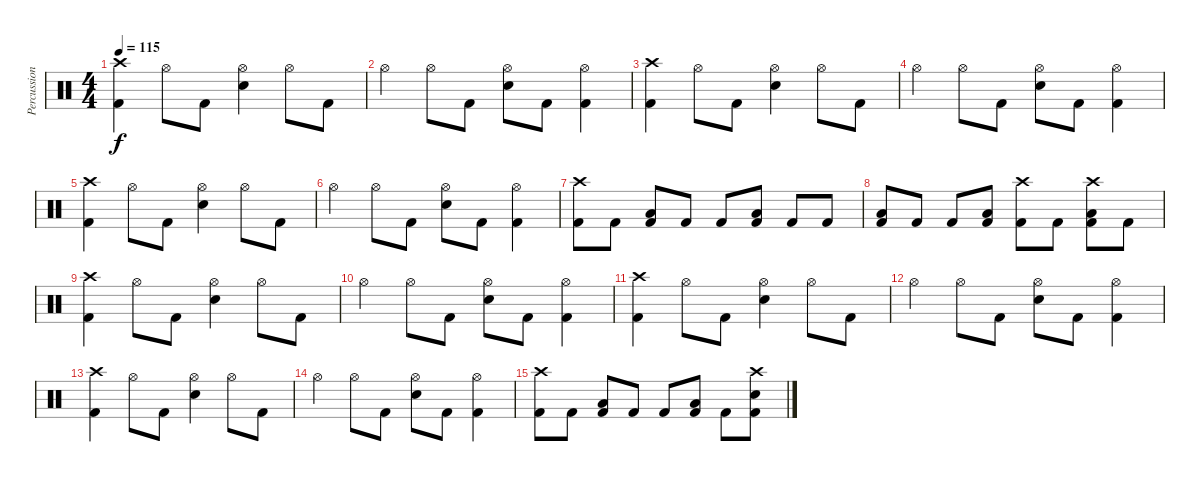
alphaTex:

\track ("Percussion" "Percussion") {instrument percussion}
\staff {score}
\articulation defaults
\ts (4 4)
\tempo 115
\clef neutral
\ks c
("Crash high (hit)" "Kick (hit) 2").4{dy f} "Hi-Hat (open)".8 "Kick (hit) 2".8 ("Hi-Hat (open)" "Electric Snare (hit)").4 "Hi-Hat (open)".8 "Kick (hit) 2".8 |
"Hi-Hat (open)".4 "Hi-Hat (open)".8 "Kick (hit) 2".8 ("Hi-Hat (open)" "Electric Snare (hit)").8 "Kick (hit) 2".8 ("Hi-Hat (open)" "Kick (hit) 2").4 |
("Crash high (hit)" "Kick (hit) 2").4 "Hi-Hat (open)".8 "Kick (hit) 2".8 ("Hi-Hat (open)" "Electric Snare (hit)").4 "Hi-Hat (open)".8 "Kick (hit) 2".8 |
"Hi-Hat (open)".4 "Hi-Hat (open)".8 "Kick (hit) 2".8 ("Hi-Hat (open)" "Electric Snare (hit)").8 "Kick (hit) 2".8 ("Hi-Hat (open)" "Kick (hit) 2").4 |
("Crash high (hit)" "Kick (hit) 2").4 "Hi-Hat (open)".8 "Kick (hit) 2".8 ("Hi-Hat (open)" "Electric Snare (hit)").4 "Hi-Hat (open)".8 "Kick (hit) 2".8 |
"Hi-Hat (open)".4 "Hi-Hat (open)".8 "Kick (hit) 2".8 ("Hi-Hat (open)" "Electric Snare (hit)").8 "Kick (hit) 2".8 ("Hi-Hat (open)" "Kick (hit) 2").4 |
("Crash high (hit)" "Kick (hit) 2").8 "Kick (hit) 2".8 ("Low Tom (hit)" "Kick (hit) 2").8 "Kick (hit) 2".8 "Kick (hit) 2".8 ("Low Tom (hit)" "Kick (hit) 2").8 "Kick (hit) 2".8 "Kick (hit) 2".8 |
("Low Tom (hit)" "Kick (hit) 2").8 "Kick (hit) 2".8 "Kick (hit) 2".8 ("Low Tom (hit)" "Kick (hit) 2").8 ("Crash high (hit)" "Kick (hit) 2").8 "Kick (hit) 2".8 ("Crash high (hit)" "Low Tom (hit)" "Kick (hit) 2").8 "Kick (hit) 2".8 |
("Crash high (hit)" "Kick (hit) 2").4 "Hi-Hat (open)".8 "Kick (hit) 2".8 ("Hi-Hat (open)" "Electric Snare (hit)").4 "Hi-Hat (open)".8 "Kick (hit) 2".8 |
"Hi-Hat (open)".4 "Hi-Hat (open)".8 "Kick (hit) 2".8 ("Hi-Hat (open)" "Electric Snare (hit)").8 "Kick (hit) 2".8 ("Hi-Hat (open)" "Kick (hit) 2").4 |
("Crash high (hit)" "Kick (hit) 2").4 "Hi-Hat (open)".8 "Kick (hit) 2".8 ("Hi-Hat (open)" "Electric Snare (hit)").4 "Hi-Hat (open)".8 "Kick (hit) 2".8 |
"Hi-Hat (open)".4 "Hi-Hat (open)".8 "Kick (hit) 2".8 ("Hi-Hat (open)" "Electric Snare (hit)").8 "Kick (hit) 2".8 ("Hi-Hat (open)" "Kick (hit) 2").4 |
("Crash high (hit)" "Kick (hit) 2").4 "Hi-Hat (open)".8 "Kick (hit) 2".8 ("Hi-Hat (open)" "Electric Snare (hit)").4 "Hi-Hat (open)".8 "Kick (hit) 2".8 |
"Hi-Hat (open)".4 "Hi-Hat (open)".8 "Kick (hit) 2".8 ("Hi-Hat (open)" "Electric Snare (hit)").8 "Kick (hit) 2".8 ("Hi-Hat (open)" "Kick (hit) 2").4 |
("Crash high (hit)" "Kick (hit) 2").8 "Kick (hit) 2".8 ("Low Tom (hit)" "Kick (hit) 2").8 "Kick (hit) 2".8 "Kick (hit) 2".8 ("Low Tom (hit)" "Kick (hit) 2").8 "Kick (hit) 2".8 ("Crash high (hit)" "Electric Snare (hit)" "Kick (hit) 2").8
